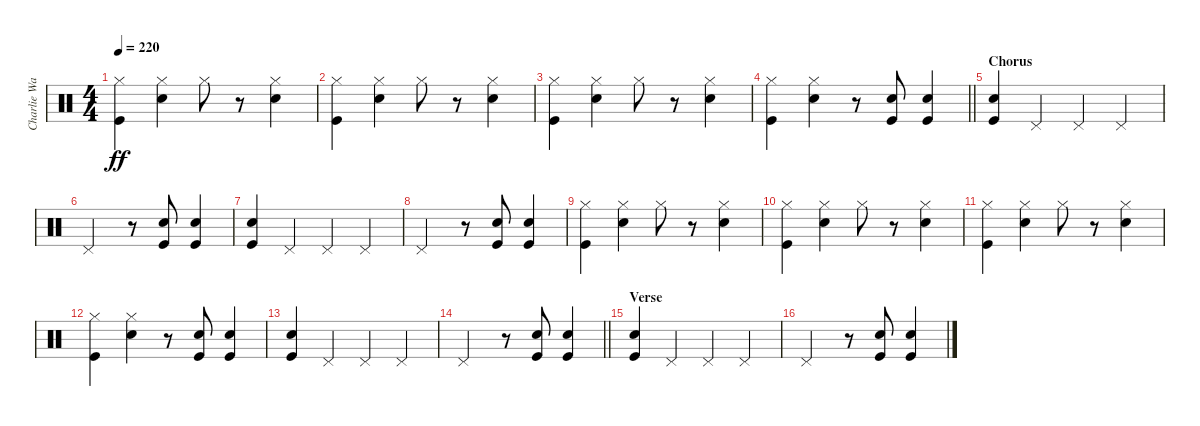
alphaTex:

\track ("Charlie Watts" "Charlie Wa") {instrument percussion}
\staff {score}
\articulation defaults
\ts (4 4)
\tempo 220
\clef neutral
\ks c
("Hi-Hat (closed)" "Kick (hit)").4{dy ff} ("Hi-Hat (closed)" "Snare (hit) 2").4 "Hi-Hat (closed)".8 r.8 ("Hi-Hat (closed)" "Snare (hit) 2").4 |
("Hi-Hat (closed)" "Kick (hit)").4 ("Hi-Hat (closed)" "Snare (hit) 2").4 "Hi-Hat (closed)".8 r.8 ("Hi-Hat (closed)" "Snare (hit) 2").4 |
("Hi-Hat (closed)" "Kick (hit)").4 ("Hi-Hat (closed)" "Snare (hit) 2").4 "Hi-Hat (closed)".8 r.8 ("Hi-Hat (closed)" "Snare (hit) 2").4 |
\barLineRight lightlight
("Hi-Hat (closed)" "Kick (hit)").4 ("Hi-Hat (closed)" "Snare (hit) 2").4 r.8 ("Snare (hit) 2" "Kick (hit)").8 ("Snare (hit) 2" "Kick (hit)").4 |
\section ("" "Chorus")
("Snare (hit) 2" "Kick (hit)").4 "Pedal Hi-Hat (hit)".4 "Pedal Hi-Hat (hit)".4 "Pedal Hi-Hat (hit)".4 |
"Pedal Hi-Hat (hit)".2 r.8 ("Snare (hit) 2" "Kick (hit)").8 ("Snare (hit) 2" "Kick (hit)").4 |
("Snare (hit) 2" "Kick (hit)").4 "Pedal Hi-Hat (hit)".4 "Pedal Hi-Hat (hit)".4 "Pedal Hi-Hat (hit)".4 |
"Pedal Hi-Hat (hit)".2 r.8 ("Snare (hit) 2" "Kick (hit)").8 ("Snare (hit) 2" "Kick (hit)").4 |
("Hi-Hat (closed)" "Kick (hit)").4 ("Hi-Hat (closed)" "Snare (hit) 2").4 "Hi-Hat (closed)".8 r.8 ("Hi-Hat (closed)" "Snare (hit) 2").4 |
("Hi-Hat (closed)" "Kick (hit)").4 ("Hi-Hat (closed)" "Snare (hit) 2").4 "Hi-Hat (closed)".8 r.8 ("Hi-Hat (closed)" "Snare (hit) 2").4 |
("Hi-Hat (closed)" "Kick (hit)").4 ("Hi-Hat (closed)" "Snare (hit) 2").4 "Hi-Hat (closed)".8 r.8 ("Hi-Hat (closed)" "Snare (hit) 2").4 |
("Hi-Hat (closed)" "Kick (hit)").4 ("Hi-Hat (closed)" "Snare (hit) 2").4 r.8 ("Snare (hit) 2" "Kick (hit)").8 ("Snare (hit) 2" "Kick (hit)").4 |
("Snare (hit) 2" "Kick (hit)").4 "Pedal Hi-Hat (hit)".4 "Pedal Hi-Hat (hit)".4 "Pedal Hi-Hat (hit)".4 |
\barLineRight lightlight "Pedal Hi-Hat (hit)".2
r.8 ("Snare (hit) 2" "Kick (hit)").8 ("Snare (hit) 2" "Kick (hit)").4 |
\section ("" "Verse")
("Snare (hit) 2" "Kick (hit)").4 "Pedal Hi-Hat (hit)".4 "Pedal Hi-Hat (hit)".4 "Pedal Hi-Hat (hit)".4 |
"Pedal Hi-Hat (hit)".2 r.8 ("Snare (hit) 2" "Kick (hit)").8 ("Snare (hit) 2" "Kick (hit)").4
